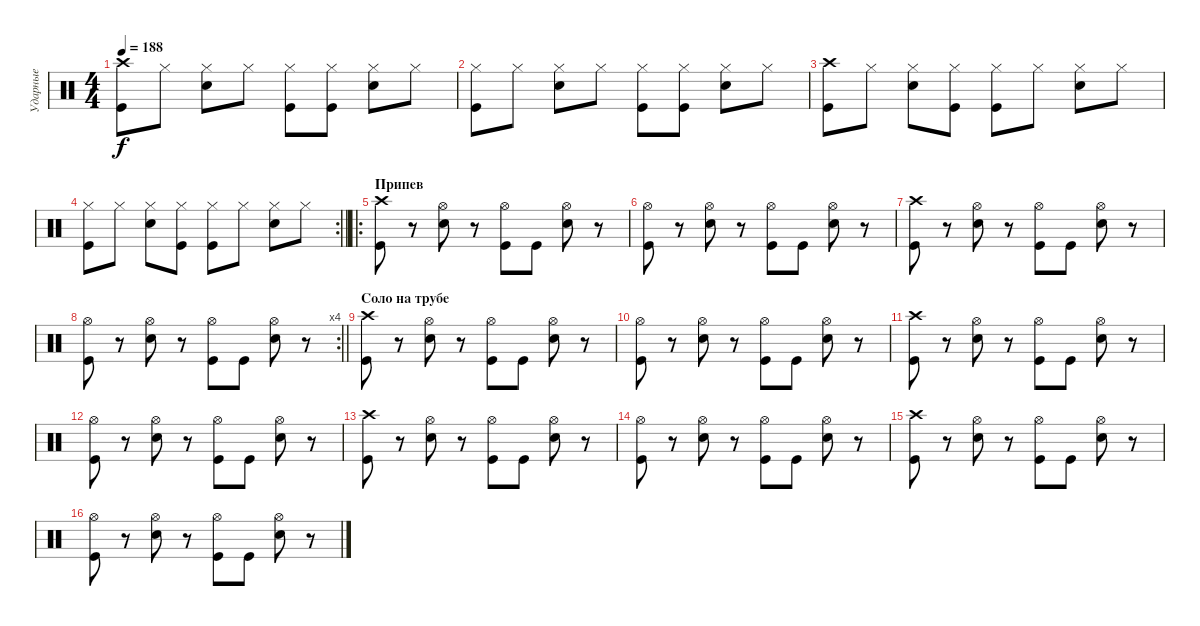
\track ("Ударные" "Ударные") {instrument percussion}
\staff {score}
\articulation defaults
\ts (4 4)
\tempo 188
\clef neutral
\ks c
("Kick (hit)" "Crash high (hit)").8{dy f} "Hi-Hat (closed)".8 ("Electric Snare (hit)" "Hi-Hat (closed)").8 "Hi-Hat (closed)".8 ("Kick (hit)" "Hi-Hat (closed)").8 ("Kick (hit)" "Hi-Hat (closed)").8 ("Electric Snare (hit)" "Hi-Hat (closed)").8 "Hi-Hat (closed)".8 |
("Kick (hit)" "Hi-Hat (closed)").8 "Hi-Hat (closed)".8 ("Electric Snare (hit)" "Hi-Hat (closed)").8 "Hi-Hat (closed)".8 ("Kick (hit)" "Hi-Hat (closed)").8 ("Kick (hit)" "Hi-Hat (closed)").8 ("Electric Snare (hit)" "Hi-Hat (closed)").8 "Hi-Hat (closed)".8 |
("Kick (hit)" "Crash high (hit)").8 "Hi-Hat (closed)".8 ("Electric Snare (hit)" "Hi-Hat (closed)").8 ("Kick (hit)" "Hi-Hat (closed)").8 ("Kick (hit)" "Hi-Hat (closed)").8 "Hi-Hat (closed)".8 ("Electric Snare (hit)" "Hi-Hat (closed)").8 "Hi-Hat (closed)".8 |
\rc 2
\barLineRight lightlight
("Kick (hit)" "Hi-Hat (closed)").8 "Hi-Hat (closed)".8 ("Electric Snare (hit)" "Hi-Hat (closed)").8 ("Kick (hit)" "Hi-Hat (closed)").8 ("Kick (hit)" "Hi-Hat (closed)").8 "Hi-Hat (closed)".8 ("Electric Snare (hit)" "Hi-Hat (closed)").8 "Hi-Hat (closed)".8 |
\ro
\section ("" "Припев")
("Kick (hit)" "Crash high (hit)").8 r.8 ("Electric Snare (hit)" "Hi-Hat (open)").8 r.8 ("Kick (hit)" "Hi-Hat (open)").8 "Kick (hit)".8 ("Electric Snare (hit)" "Hi-Hat (open)").8 r.8 |
("Kick (hit)" "Hi-Hat (open)").8 r.8 ("Electric Snare (hit)" "Hi-Hat (open)").8 r.8 ("Kick (hit)" "Hi-Hat (open)").8 "Kick (hit)".8 ("Electric Snare (hit)" "Hi-Hat (open)").8 r.8 |
("Kick (hit)" "Crash high (hit)").8 r.8 ("Electric Snare (hit)" "Hi-Hat (open)").8 r.8 ("Kick (hit)" "Hi-Hat (open)").8 "Kick (hit)".8 ("Electric Snare (hit)" "Hi-Hat (open)").8 r.8 |
\rc 4
\barLineRight lightlight
("Kick (hit)" "Hi-Hat (open)").8 r.8 ("Electric Snare (hit)" "Hi-Hat (open)").8 r.8 ("Kick (hit)" "Hi-Hat (open)").8 "Kick (hit)".8 ("Electric Snare (hit)" "Hi-Hat (open)").8 r.8 |
\section ("" "Соло на трубе")
("Kick (hit)" "Crash high (hit)").8 r.8 ("Electric Snare (hit)" "Hi-Hat (open)").8 r.8 ("Kick (hit)" "Hi-Hat (open)").8 "Kick (hit)".8 ("Electric Snare (hit)" "Hi-Hat (open)").8 r.8 |
("Kick (hit)" "Hi-Hat (open)").8 r.8 ("Electric Snare (hit)" "Hi-Hat (open)").8 r.8 ("Kick (hit)" "Hi-Hat (open)").8 "Kick (hit)".8 ("Electric Snare (hit)" "Hi-Hat (open)").8 r.8 |
("Kick (hit)" "Crash high (hit)").8 r.8 ("Electric Snare (hit)" "Hi-Hat (open)").8 r.8 ("Kick (hit)" "Hi-Hat (open)").8 "Kick (hit)".8 ("Electric Snare (hit)" "Hi-Hat (open)").8 r.8 |
("Kick (hit)" "Hi-Hat (open)").8 r.8 ("Electric Snare (hit)" "Hi-Hat (open)").8 r.8 ("Kick (hit)" "Hi-Hat (open)").8 "Kick (hit)".8 ("Electric Snare (hit)" "Hi-Hat (open)").8 r.8 |
("Kick (hit)" "Crash high (hit)").8 r.8 ("Electric Snare (hit)" "Hi-Hat (open)").8 r.8 ("Kick (hit)" "Hi-Hat (open)").8 "Kick (hit)".8 ("Electric Snare (hit)" "Hi-Hat (open)").8 r.8 |
("Kick (hit)" "Hi-Hat (open)").8 r.8 ("Electric Snare (hit)" "Hi-Hat (open)").8 r.8 ("Kick (hit)" "Hi-Hat (open)").8 "Kick (hit)".8 ("Electric Snare (hit)" "Hi-Hat (open)").8 r.8 |
("Kick (hit)" "Crash high (hit)").8 r.8 ("Electric Snare (hit)" "Hi-Hat (open)").8 r.8 ("Kick (hit)" "Hi-Hat (open)").8 "Kick (hit)".8 ("Electric Snare (hit)" "Hi-Hat (open)").8 r.8 |
("Kick (hit)" "Hi-Hat (open)").8 r.8 ("Electric Snare (hit)" "Hi-Hat (open)").8 r.8 ("Kick (hit)" "Hi-Hat (open)").8 "Kick (hit)".8 ("Electric Snare (hit)" "Hi-Hat (open)").8 r.8
